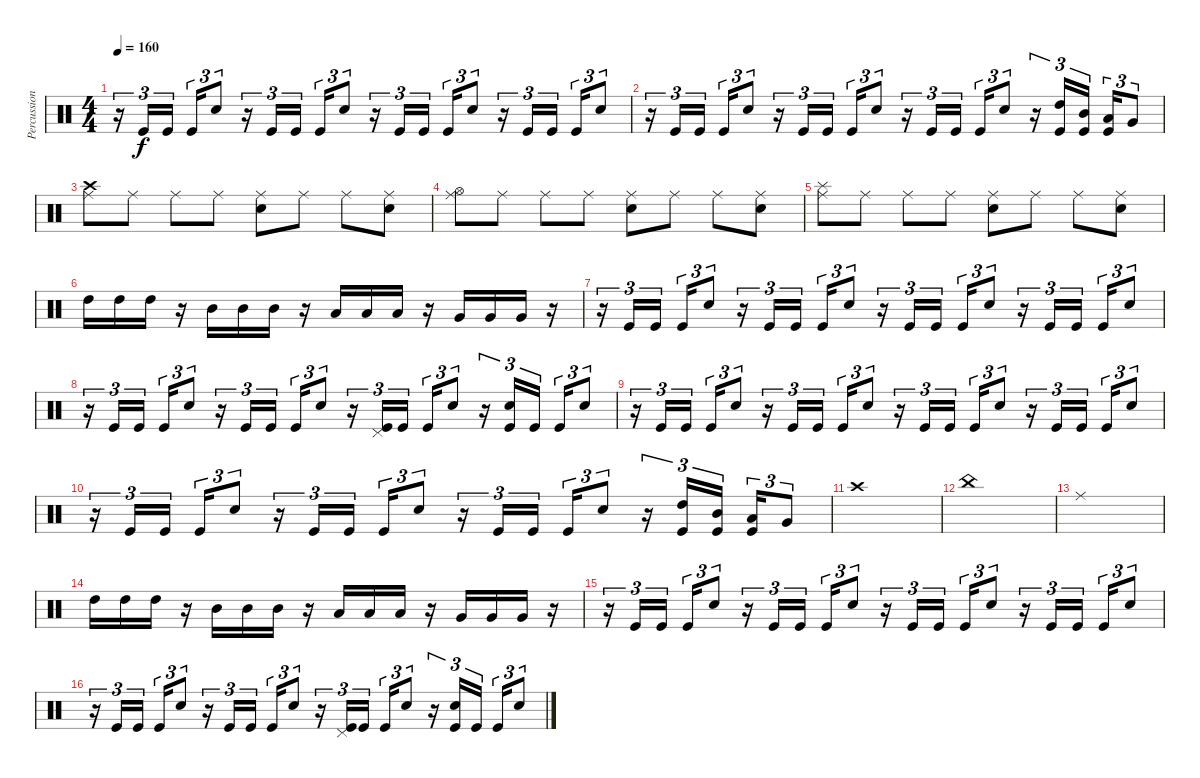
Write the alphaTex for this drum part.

\track ("Percussion" "Percussion") {instrument percussion}
\staff {score}
\articulation defaults
\ts (4 4)
\tempo 160
\clef neutral
\ks c
r.16{tu (3 2) dy f} "Kick (hit)".16{tu (3 2)} "Kick (hit)".16{tu (3 2)} "Kick (hit)".16{tu (3 2)} "Snare (hit) 2".8{tu (3 2)} r.16{tu (3 2)} "Kick (hit)".16{tu (3 2)} "Kick (hit)".16{tu (3 2)} "Kick (hit)".16{tu (3 2)} "Snare (hit) 2".8{tu (3 2)} r.16{tu (3 2)} "Kick (hit)".16{tu (3 2)} "Kick (hit)".16{tu (3 2)} "Kick (hit)".16{tu (3 2)} "Snare (hit) 2".8{tu (3 2)} r.16{tu (3 2)} "Kick (hit)".16{tu (3 2)} "Kick (hit)".16{tu (3 2)} "Kick (hit)".16{tu (3 2)} "Snare (hit) 2".8{tu (3 2)} |
r.16{tu (3 2)} "Kick (hit)".16{tu (3 2)} "Kick (hit)".16{tu (3 2)} "Kick (hit)".16{tu (3 2)} "Snare (hit) 2".8{tu (3 2)} r.16{tu (3 2)} "Kick (hit)".16{tu (3 2)} "Kick (hit)".16{tu (3 2)} "Kick (hit)".16{tu (3 2)} "Snare (hit) 2".8{tu (3 2)} r.16{tu (3 2)} "Kick (hit)".16{tu (3 2)} "Kick (hit)".16{tu (3 2)} "Kick (hit)".16{tu (3 2)} "Snare (hit) 2".8{tu (3 2)} r.16{tu (3 2)} ("Kick (hit)" "High Tom (hit)").16{tu (3 2)} ("Kick (hit)" "Mid Tom (hit)").16{tu (3 2)} ("Kick (hit)" "Low Tom (hit)").16{tu (3 2)} "Very Low Tom (hit)".8{tu (3 2)} |
("Crash high (hit)" "Ride (middle)").8 "Ride (middle)".8 "Ride (middle)".8 "Ride (middle)".8 ("Snare (hit) 2" "Ride (middle)").8 "Ride (middle)".8 "Ride (middle)".8 ("Snare (hit) 2" "Ride (middle)").8 |
("Hi-Hat (open)" "Ride (middle)").8 "Ride (middle)".8 "Ride (middle)".8 "Ride (middle)".8 ("Snare (hit) 2" "Ride (middle)").8 "Ride (middle)".8 "Ride (middle)".8 ("Snare (hit) 2" "Ride (middle)").8 |
("Splash (hit)" "Ride (middle)").8 "Ride (middle)".8 "Ride (middle)".8 "Ride (middle)".8 ("Snare (hit) 2" "Ride (middle)").8 "Ride (middle)".8 "Ride (middle)".8 ("Snare (hit) 2" "Ride (middle)").8 |
"High Tom (hit)".16 "High Tom (hit)".16 "High Tom (hit)".16 r.16 "Mid Tom (hit)".16 "Mid Tom (hit)".16 "Mid Tom (hit)".16 r.16 "Low Tom (hit)".16 "Low Tom (hit)".16 "Low Tom (hit)".16 r.16 "Very Low Tom (hit)".16 "Very Low Tom (hit)".16 "Very Low Tom (hit)".16 r.16 |
r.16{tu (3 2)} "Kick (hit)".16{tu (3 2)} "Kick (hit)".16{tu (3 2)} "Kick (hit)".16{tu (3 2)} "Snare (hit) 2".8{tu (3 2)} r.16{tu (3 2)} "Kick (hit)".16{tu (3 2)} "Kick (hit)".16{tu (3 2)} "Kick (hit)".16{tu (3 2)} "Snare (hit) 2".8{tu (3 2)} r.16{tu (3 2)} "Kick (hit)".16{tu (3 2)} "Kick (hit)".16{tu (3 2)} "Kick (hit)".16{tu (3 2)} "Snare (hit) 2".8{tu (3 2)} r.16{tu (3 2)} "Kick (hit)".16{tu (3 2)} "Kick (hit)".16{tu (3 2)} "Kick (hit)".16{tu (3 2)} "Snare (hit) 2".8{tu (3 2)} |
r.16{tu (3 2)} "Kick (hit)".16{tu (3 2)} "Kick (hit)".16{tu (3 2)} "Kick (hit)".16{tu (3 2)} "Snare (hit) 2".8{tu (3 2)} r.16{tu (3 2)} "Kick (hit)".16{tu (3 2)} "Kick (hit)".16{tu (3 2)} "Kick (hit)".16{tu (3 2)} "Snare (hit) 2".8{tu (3 2)} r.16{tu (3 2)} ("Pedal Hi-Hat (hit)" "Kick (hit)").16{tu (3 2)} "Kick (hit)".16{tu (3 2)} "Kick (hit)".16{tu (3 2)} "Snare (hit) 2".8{tu (3 2)} r.16{tu (3 2)} ("Snare (hit) 2" "Kick (hit)").16{tu (3 2)} "Kick (hit)".16{tu (3 2)} "Kick (hit)".16{tu (3 2)} "Snare (hit) 2".8{tu (3 2)} |
r.16{tu (3 2)} "Kick (hit)".16{tu (3 2)} "Kick (hit)".16{tu (3 2)} "Kick (hit)".16{tu (3 2)} "Snare (hit) 2".8{tu (3 2)} r.16{tu (3 2)} "Kick (hit)".16{tu (3 2)} "Kick (hit)".16{tu (3 2)} "Kick (hit)".16{tu (3 2)} "Snare (hit) 2".8{tu (3 2)} r.16{tu (3 2)} "Kick (hit)".16{tu (3 2)} "Kick (hit)".16{tu (3 2)} "Kick (hit)".16{tu (3 2)} "Snare (hit) 2".8{tu (3 2)} r.16{tu (3 2)} "Kick (hit)".16{tu (3 2)} "Kick (hit)".16{tu (3 2)} "Kick (hit)".16{tu (3 2)} "Snare (hit) 2".8{tu (3 2)} |
r.16{tu (3 2)} "Kick (hit)".16{tu (3 2)} "Kick (hit)".16{tu (3 2)} "Kick (hit)".16{tu (3 2)} "Snare (hit) 2".8{tu (3 2)} r.16{tu (3 2)} "Kick (hit)".16{tu (3 2)} "Kick (hit)".16{tu (3 2)} "Kick (hit)".16{tu (3 2)} "Snare (hit) 2".8{tu (3 2)} r.16{tu (3 2)} "Kick (hit)".16{tu (3 2)} "Kick (hit)".16{tu (3 2)} "Kick (hit)".16{tu (3 2)} "Snare (hit) 2".8{tu (3 2)} r.16{tu (3 2)} ("Kick (hit)" "High Tom (hit)").16{tu (3 2)} ("Kick (hit)" "Mid Tom (hit)").16{tu (3 2)} ("Kick (hit)" "Low Tom (hit)").16{tu (3 2)} "Very Low Tom (hit)".8{tu (3 2)} |
"Crash high (hit)".1 |
"China (hit)".1 |
"Ride (middle)".1 |
"High Tom (hit)".16 "High Tom (hit)".16 "High Tom (hit)".16 r.16 "Mid Tom (hit)".16 "Mid Tom (hit)".16 "Mid Tom (hit)".16 r.16 "Low Tom (hit)".16 "Low Tom (hit)".16 "Low Tom (hit)".16 r.16 "Very Low Tom (hit)".16 "Very Low Tom (hit)".16 "Very Low Tom (hit)".16 r.16 |
r.16{tu (3 2)} "Kick (hit)".16{tu (3 2)} "Kick (hit)".16{tu (3 2)} "Kick (hit)".16{tu (3 2)} "Snare (hit) 2".8{tu (3 2)} r.16{tu (3 2)} "Kick (hit)".16{tu (3 2)} "Kick (hit)".16{tu (3 2)} "Kick (hit)".16{tu (3 2)} "Snare (hit) 2".8{tu (3 2)} r.16{tu (3 2)} "Kick (hit)".16{tu (3 2)} "Kick (hit)".16{tu (3 2)} "Kick (hit)".16{tu (3 2)} "Snare (hit) 2".8{tu (3 2)} r.16{tu (3 2)} "Kick (hit)".16{tu (3 2)} "Kick (hit)".16{tu (3 2)} "Kick (hit)".16{tu (3 2)} "Snare (hit) 2".8{tu (3 2)} |
r.16{tu (3 2)} "Kick (hit)".16{tu (3 2)} "Kick (hit)".16{tu (3 2)} "Kick (hit)".16{tu (3 2)} "Snare (hit) 2".8{tu (3 2)} r.16{tu (3 2)} "Kick (hit)".16{tu (3 2)} "Kick (hit)".16{tu (3 2)} "Kick (hit)".16{tu (3 2)} "Snare (hit) 2".8{tu (3 2)} r.16{tu (3 2)} ("Pedal Hi-Hat (hit)" "Kick (hit)").16{tu (3 2)} "Kick (hit)".16{tu (3 2)} "Kick (hit)".16{tu (3 2)} "Snare (hit) 2".8{tu (3 2)} r.16{tu (3 2)} ("Snare (hit) 2" "Kick (hit)").16{tu (3 2)} "Kick (hit)".16{tu (3 2)} "Kick (hit)".16{tu (3 2)} "Snare (hit) 2".8{tu (3 2)}
